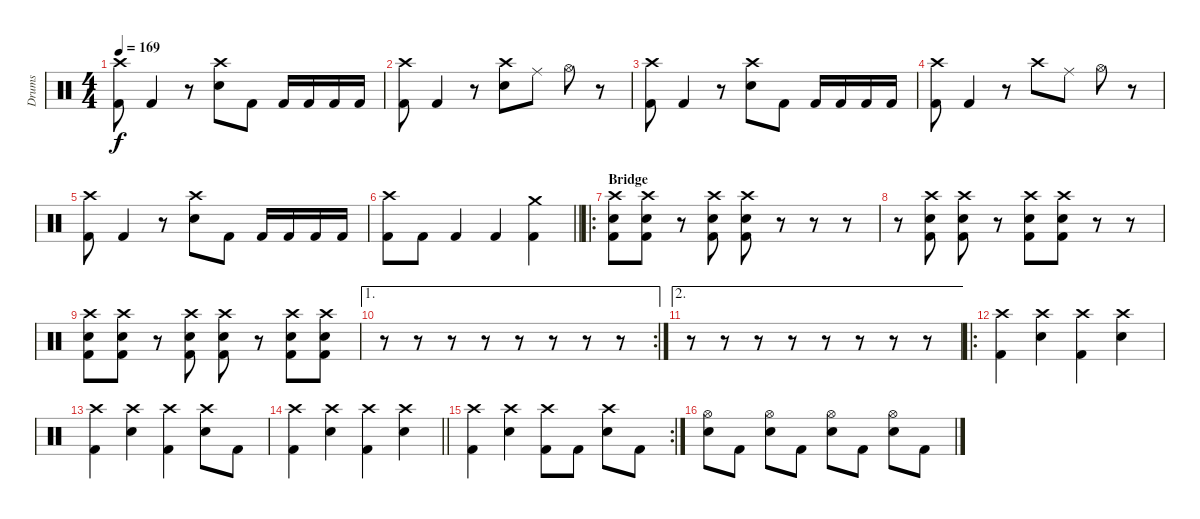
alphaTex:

\track ("Drums" "Drums") {instrument percussion}
\staff {score}
\articulation defaults
\ts (4 4)
\tempo 169
\clef neutral
\ks c
("Crash high (hit)" "Kick (hit) 2").8{dy f} "Kick (hit) 2".4 r.8 ("Crash high (hit)" "Electric Snare (hit)").8 "Kick (hit) 2".8 "Kick (hit) 2".16 "Kick (hit) 2".16 "Kick (hit) 2".16 "Kick (hit) 2".16 |
("Crash high (hit)" "Kick (hit) 2").8 "Kick (hit) 2".4 r.8 ("Crash high (hit)" "Electric Snare (hit)").8 "Ride (middle)".8 "Hi-Hat (open)".8 r.8 |
("Crash high (hit)" "Kick (hit) 2").8 "Kick (hit) 2".4 r.8 ("Crash high (hit)" "Electric Snare (hit)").8 "Kick (hit) 2".8 "Kick (hit) 2".16 "Kick (hit) 2".16 "Kick (hit) 2".16 "Kick (hit) 2".16 |
("Crash high (hit)" "Kick (hit) 2").8 "Kick (hit) 2".4 r.8 "Crash high (hit)".8 "Ride (middle)".8 "Hi-Hat (open)".8 r.8 |
("Crash high (hit)" "Kick (hit) 2").8 "Kick (hit) 2".4 r.8 ("Crash high (hit)" "Electric Snare (hit)").8 "Kick (hit) 2".8 "Kick (hit) 2".16 "Kick (hit) 2".16 "Kick (hit) 2".16 "Kick (hit) 2".16 |
\barLineRight lightlight
("Crash high (hit)" "Kick (hit) 2").8 "Kick (hit) 2".8 "Kick (hit) 2".4 "Kick (hit) 2".4 ("Crash medium (hit)" "Kick (hit) 2").4 |
\ro
\section ("" "Bridge")
("Crash high (hit)" "Electric Snare (hit)" "Kick (hit) 2").8 ("Crash high (hit)" "Electric Snare (hit)" "Kick (hit) 2").8 r.8 ("Crash high (hit)" "Electric Snare (hit)" "Kick (hit) 2").8 ("Crash high (hit)" "Electric Snare (hit)" "Kick (hit) 2").8 r.8 r.8 r.8 |
r.8 ("Crash high (hit)" "Electric Snare (hit)" "Kick (hit) 2").8 ("Crash high (hit)" "Electric Snare (hit)" "Kick (hit) 2").8 r.8 ("Crash high (hit)" "Electric Snare (hit)" "Kick (hit) 2").8 ("Crash high (hit)" "Electric Snare (hit)" "Kick (hit) 2").8 r.8 r.8 |
("Crash high (hit)" "Electric Snare (hit)" "Kick (hit) 2").8 ("Crash high (hit)" "Electric Snare (hit)" "Kick (hit) 2").8 r.8 ("Crash high (hit)" "Electric Snare (hit)" "Kick (hit) 2").8 ("Crash high (hit)" "Electric Snare (hit)" "Kick (hit) 2").8 r.8 ("Crash high (hit)" "Electric Snare (hit)" "Kick (hit) 2").8 ("Crash high (hit)" "Electric Snare (hit)" "Kick (hit) 2").8 |
\ae 1
\rc 2
r.8 r.8 r.8 r.8 r.8 r.8 r.8 r.8 |
\ae 2
r.8 r.8 r.8 r.8 r.8 r.8 r.8 r.8 |
\ro
("Crash high (hit)" "Kick (hit) 2").4 ("Crash high (hit)" "Electric Snare (hit)").4 ("Crash high (hit)" "Kick (hit) 2").4 ("Crash high (hit)" "Electric Snare (hit)").4 |
("Crash high (hit)" "Kick (hit) 2").4 ("Crash high (hit)" "Electric Snare (hit)").4 ("Crash high (hit)" "Kick (hit) 2").4 ("Crash high (hit)" "Electric Snare (hit)").8 "Kick (hit) 2".8 |
\barLineRight lightlight
("Crash high (hit)" "Kick (hit) 2").4 ("Crash high (hit)" "Electric Snare (hit)").4 ("Crash high (hit)" "Kick (hit) 2").4 ("Crash high (hit)" "Electric Snare (hit)").4 |
\rc 2
("Crash high (hit)" "Kick (hit) 2").4 ("Crash high (hit)" "Electric Snare (hit)").4 ("Crash high (hit)" "Kick (hit) 2").8 "Kick (hit) 2".8 ("Crash high (hit)" "Electric Snare (hit)").8 "Kick (hit) 2".8 |
("Hi-Hat (open)" "Electric Snare (hit)").8 "Kick (hit) 2".8 ("Hi-Hat (open)" "Electric Snare (hit)").8 "Kick (hit) 2".8 ("Hi-Hat (open)" "Electric Snare (hit)").8 "Kick (hit) 2".8 ("Hi-Hat (open)" "Electric Snare (hit)").8 "Kick (hit) 2".8
